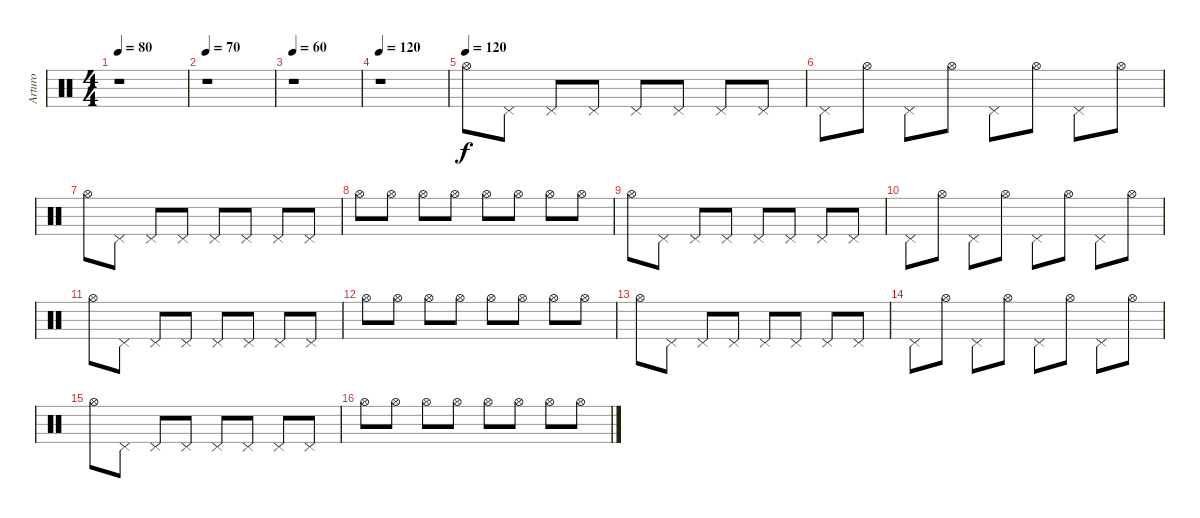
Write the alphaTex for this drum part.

\track ("Arturo" "Arturo") {instrument percussion}
\staff {score}
\articulation defaults
\ts (4 4)
\tempo 80
\clef neutral
\ks c
r.1{dy f} |
\tempo 70
r.1 |
\tempo 60
r.1 |
\tempo 120
r.1 |
\tempo (120)
"Hi-Hat (open)".8 "Pedal Hi-Hat (hit)".8 "Pedal Hi-Hat (hit)".8 "Pedal Hi-Hat (hit)".8 "Pedal Hi-Hat (hit)".8 "Pedal Hi-Hat (hit)".8 "Pedal Hi-Hat (hit)".8 "Pedal Hi-Hat (hit)".8 |
"Pedal Hi-Hat (hit)".8 "Hi-Hat (open)".8 "Pedal Hi-Hat (hit)".8 "Hi-Hat (open)".8 "Pedal Hi-Hat (hit)".8 "Hi-Hat (open)".8 "Pedal Hi-Hat (hit)".8 "Hi-Hat (open)".8 |
"Hi-Hat (open)".8 "Pedal Hi-Hat (hit)".8 "Pedal Hi-Hat (hit)".8 "Pedal Hi-Hat (hit)".8 "Pedal Hi-Hat (hit)".8 "Pedal Hi-Hat (hit)".8 "Pedal Hi-Hat (hit)".8 "Pedal Hi-Hat (hit)".8 |
"Hi-Hat (open)".8 "Hi-Hat (open)".8 "Hi-Hat (open)".8 "Hi-Hat (open)".8 "Hi-Hat (open)".8 "Hi-Hat (open)".8 "Hi-Hat (open)".8 "Hi-Hat (open)".8 |
"Hi-Hat (open)".8 "Pedal Hi-Hat (hit)".8 "Pedal Hi-Hat (hit)".8 "Pedal Hi-Hat (hit)".8 "Pedal Hi-Hat (hit)".8 "Pedal Hi-Hat (hit)".8 "Pedal Hi-Hat (hit)".8 "Pedal Hi-Hat (hit)".8 |
"Pedal Hi-Hat (hit)".8 "Hi-Hat (open)".8 "Pedal Hi-Hat (hit)".8 "Hi-Hat (open)".8 "Pedal Hi-Hat (hit)".8 "Hi-Hat (open)".8 "Pedal Hi-Hat (hit)".8 "Hi-Hat (open)".8 |
"Hi-Hat (open)".8 "Pedal Hi-Hat (hit)".8 "Pedal Hi-Hat (hit)".8 "Pedal Hi-Hat (hit)".8 "Pedal Hi-Hat (hit)".8 "Pedal Hi-Hat (hit)".8 "Pedal Hi-Hat (hit)".8 "Pedal Hi-Hat (hit)".8 |
"Hi-Hat (open)".8 "Hi-Hat (open)".8 "Hi-Hat (open)".8 "Hi-Hat (open)".8 "Hi-Hat (open)".8 "Hi-Hat (open)".8 "Hi-Hat (open)".8 "Hi-Hat (open)".8 |
"Hi-Hat (open)".8 "Pedal Hi-Hat (hit)".8 "Pedal Hi-Hat (hit)".8 "Pedal Hi-Hat (hit)".8 "Pedal Hi-Hat (hit)".8 "Pedal Hi-Hat (hit)".8 "Pedal Hi-Hat (hit)".8 "Pedal Hi-Hat (hit)".8 |
"Pedal Hi-Hat (hit)".8 "Hi-Hat (open)".8 "Pedal Hi-Hat (hit)".8 "Hi-Hat (open)".8 "Pedal Hi-Hat (hit)".8 "Hi-Hat (open)".8 "Pedal Hi-Hat (hit)".8 "Hi-Hat (open)".8 |
"Hi-Hat (open)".8 "Pedal Hi-Hat (hit)".8 "Pedal Hi-Hat (hit)".8 "Pedal Hi-Hat (hit)".8 "Pedal Hi-Hat (hit)".8 "Pedal Hi-Hat (hit)".8 "Pedal Hi-Hat (hit)".8 "Pedal Hi-Hat (hit)".8 |
"Hi-Hat (open)".8 "Hi-Hat (open)".8 "Hi-Hat (open)".8 "Hi-Hat (open)".8 "Hi-Hat (open)".8 "Hi-Hat (open)".8 "Hi-Hat (open)".8 "Hi-Hat (open)".8
